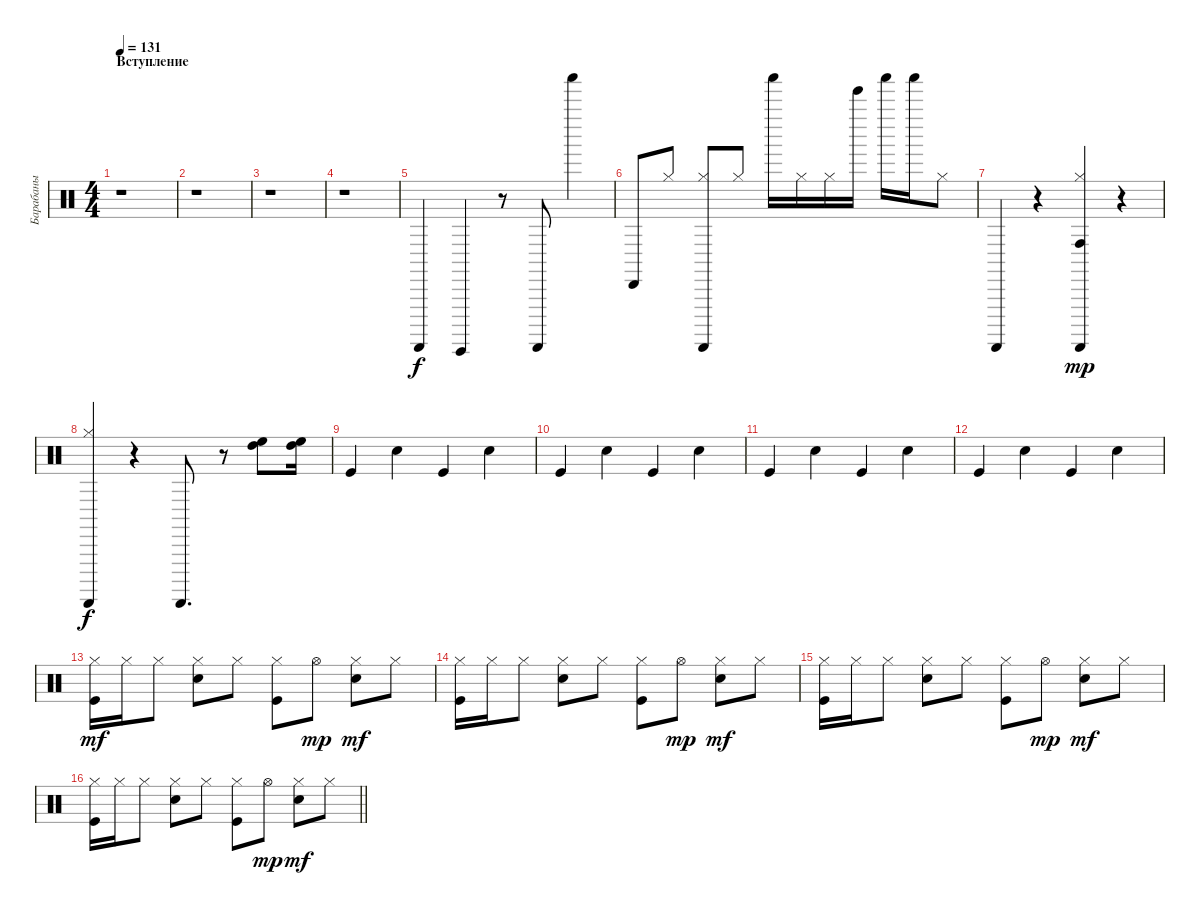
\track ("Барабаны" "Барабаны") {instrument percussion}
\staff {score}
\articulation defaults
\ts (4 4)
\section ("" "Вступление")
\tempo 131
\clef neutral
\ks c
r.1{dy f} |
r.1 |
r.1 |
r.1 |
"Guiro (scrap-return)".4 "Guiro (hit)".4 r.8 "Guiro (scrap-return)".8 "Shaker (hit)".4 |
"Cabasa (hit)".8 "Hi-Hat (closed)".8 ("Hi-Hat (closed)" "Guiro (scrap-return)").8 "Hi-Hat (closed)".8 "Shaker (hit)".16 "Hi-Hat (closed)".16 "Hi-Hat (closed)".16 "Tinkle Bell (hit)".16 "Shaker (hit)".16 "Shaker (hit)".16 "Hi-Hat (closed)".8 |
"Guiro (scrap-return)".4 r.4 ("Conga high (hit)" "Guiro (scrap-return)" "Hi-Hat (closed)").4{dy mp} r.4 |
("Guiro (scrap-return)" "Hi-Hat (closed)").4{dy f} r.4 "Guiro (scrap-return)".8{d} r.8 ("High Floor Tom (hit)" "High Tom (hit)").8 ("High Floor Tom (hit)" "High Tom (hit)").16 |
"Kick (hit)".4 "Snare (hit) 2".4 "Kick (hit)".4 "Snare (hit) 2".4 |
"Kick (hit)".4 "Snare (hit) 2".4 "Kick (hit)".4 "Snare (hit) 2".4 |
"Kick (hit)".4 "Snare (hit) 2".4 "Kick (hit)".4 "Snare (hit) 2".4 |
"Kick (hit)".4 "Snare (hit) 2".4 "Kick (hit)".4 "Snare (hit) 2".4 |
("Kick (hit)" "Hi-Hat (closed)").16{dy mf} "Hi-Hat (closed)".16 "Hi-Hat (closed)".8 ("Snare (hit) 2" "Hi-Hat (closed)").8 "Hi-Hat (closed)".8 ("Kick (hit)" "Hi-Hat (closed)").8 "Hi-Hat (open)".8{dy mp} ("Snare (hit) 2" "Hi-Hat (closed)").8{dy mf} "Hi-Hat (closed)".8 |
("Kick (hit)" "Hi-Hat (closed)").16 "Hi-Hat (closed)".16 "Hi-Hat (closed)".8 ("Snare (hit) 2" "Hi-Hat (closed)").8 "Hi-Hat (closed)".8 ("Kick (hit)" "Hi-Hat (closed)").8 "Hi-Hat (open)".8{dy mp} ("Snare (hit) 2" "Hi-Hat (closed)").8{dy mf} "Hi-Hat (closed)".8 |
("Kick (hit)" "Hi-Hat (closed)").16 "Hi-Hat (closed)".16 "Hi-Hat (closed)".8 ("Snare (hit) 2" "Hi-Hat (closed)").8 "Hi-Hat (closed)".8 ("Kick (hit)" "Hi-Hat (closed)").8 "Hi-Hat (open)".8{dy mp} ("Snare (hit) 2" "Hi-Hat (closed)").8{dy mf} "Hi-Hat (closed)".8 |
\barLineRight lightlight
("Kick (hit)" "Hi-Hat (closed)").16 "Hi-Hat (closed)".16 "Hi-Hat (closed)".8 ("Snare (hit) 2" "Hi-Hat (closed)").8 "Hi-Hat (closed)".8 ("Kick (hit)" "Hi-Hat (closed)").8 "Hi-Hat (open)".8{dy mp} ("Snare (hit) 2" "Hi-Hat (closed)").8{dy mf} "Hi-Hat (closed)".8
